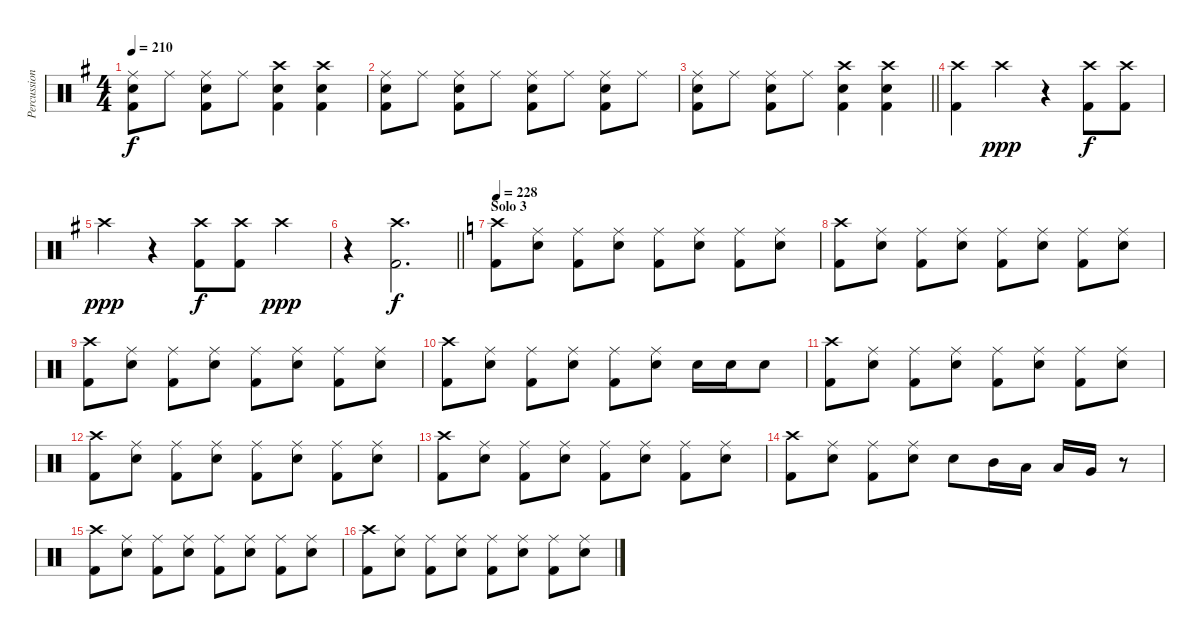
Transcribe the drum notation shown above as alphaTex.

\track ("Percussion" "Percussion") {instrument percussion}
\staff {score}
\articulation defaults
\ts (4 4)
\tempo 210
\clef neutral
\ks eminor
("Ride (middle)" "Snare (hit) 2" "Kick (hit) 2").8{dy f} "Ride (middle)".8 ("Ride (middle)" "Snare (hit) 2" "Kick (hit) 2").8 "Ride (middle)".8 ("Crash high (hit)" "Snare (hit) 2" "Kick (hit) 2").4 ("Crash high (hit)" "Snare (hit) 2" "Kick (hit) 2").4 |
("Ride (middle)" "Snare (hit) 2" "Kick (hit) 2").8 "Ride (middle)".8 ("Ride (middle)" "Snare (hit) 2" "Kick (hit) 2").8 "Ride (middle)".8 ("Ride (middle)" "Snare (hit) 2" "Kick (hit) 2").8 "Ride (middle)".8 ("Ride (middle)" "Snare (hit) 2" "Kick (hit) 2").8 "Ride (middle)".8 |
\barLineRight lightlight
("Ride (middle)" "Snare (hit) 2" "Kick (hit) 2").8 "Ride (middle)".8 ("Ride (middle)" "Snare (hit) 2" "Kick (hit) 2").8 "Ride (middle)".8 ("Crash high (hit)" "Snare (hit) 2" "Kick (hit) 2").4 ("Crash high (hit)" "Snare (hit) 2" "Kick (hit) 2").4 |
("Crash high (hit)" "Kick (hit) 2").4 "Crash high (hit)".4{dy ppp} r.4 ("Crash high (hit)" "Kick (hit) 2").8{dy f} ("Crash high (hit)" "Kick (hit) 2").8 |
"Crash high (hit)".4{dy ppp} r.4 ("Crash high (hit)" "Kick (hit) 2").8{dy f} ("Crash high (hit)" "Kick (hit) 2").8 "Crash high (hit)".4{dy ppp} |
\barLineRight lightlight
r.4 ("Crash high (hit)" "Kick (hit) 2").2{d dy f} |
\section ("" "Solo 3")
\tempo 228
\ks aminor
("Crash high (hit)" "Kick (hit) 2").8 ("Ride (middle)" "Snare (hit) 2").8 ("Ride (middle)" "Kick (hit) 2").8 ("Ride (middle)" "Snare (hit) 2").8 ("Ride (middle)" "Kick (hit) 2").8 ("Ride (middle)" "Snare (hit) 2").8 ("Ride (middle)" "Kick (hit) 2").8 ("Ride (middle)" "Snare (hit) 2").8 |
("Crash high (hit)" "Kick (hit) 2").8 ("Ride (middle)" "Snare (hit) 2").8 ("Ride (middle)" "Kick (hit) 2").8 ("Ride (middle)" "Snare (hit) 2").8 ("Ride (middle)" "Kick (hit) 2").8 ("Ride (middle)" "Snare (hit) 2").8 ("Ride (middle)" "Kick (hit) 2").8 ("Ride (middle)" "Snare (hit) 2").8 |
("Crash high (hit)" "Kick (hit) 2").8 ("Ride (middle)" "Snare (hit) 2").8 ("Ride (middle)" "Kick (hit) 2").8 ("Ride (middle)" "Snare (hit) 2").8 ("Ride (middle)" "Kick (hit) 2").8 ("Ride (middle)" "Snare (hit) 2").8 ("Ride (middle)" "Kick (hit) 2").8 ("Ride (middle)" "Snare (hit) 2").8 |
("Crash high (hit)" "Kick (hit) 2").8 ("Ride (middle)" "Snare (hit) 2").8 ("Ride (middle)" "Kick (hit) 2").8 ("Ride (middle)" "Snare (hit) 2").8 ("Ride (middle)" "Kick (hit) 2").8 ("Ride (middle)" "Snare (hit) 2").8 "Snare (hit) 2".16 "Snare (hit) 2".16 "Snare (hit) 2".8 |
("Crash high (hit)" "Kick (hit) 2").8 ("Ride (middle)" "Snare (hit) 2").8 ("Ride (middle)" "Kick (hit) 2").8 ("Ride (middle)" "Snare (hit) 2").8 ("Ride (middle)" "Kick (hit) 2").8 ("Ride (middle)" "Snare (hit) 2").8 ("Ride (middle)" "Kick (hit) 2").8 ("Ride (middle)" "Snare (hit) 2").8 |
("Crash high (hit)" "Kick (hit) 2").8 ("Ride (middle)" "Snare (hit) 2").8 ("Ride (middle)" "Kick (hit) 2").8 ("Ride (middle)" "Snare (hit) 2").8 ("Ride (middle)" "Kick (hit) 2").8 ("Ride (middle)" "Snare (hit) 2").8 ("Ride (middle)" "Kick (hit) 2").8 ("Ride (middle)" "Snare (hit) 2").8 |
("Crash high (hit)" "Kick (hit) 2").8 ("Ride (middle)" "Snare (hit) 2").8 ("Ride (middle)" "Kick (hit) 2").8 ("Ride (middle)" "Snare (hit) 2").8 ("Ride (middle)" "Kick (hit) 2").8 ("Ride (middle)" "Snare (hit) 2").8 ("Ride (middle)" "Kick (hit) 2").8 ("Ride (middle)" "Snare (hit) 2").8 |
("Crash high (hit)" "Kick (hit) 2").8 ("Ride (middle)" "Snare (hit) 2").8 ("Ride (middle)" "Kick (hit) 2").8 ("Ride (middle)" "Snare (hit) 2").8 "Snare (hit) 2".8 "Mid Tom (hit)".16 "Low Tom (hit)".16 "Low Tom (hit)".16 "Very Low Tom (hit)".16 r.8 |
("Crash high (hit)" "Kick (hit) 2").8 ("Ride (middle)" "Snare (hit) 2").8 ("Ride (middle)" "Kick (hit) 2").8 ("Ride (middle)" "Snare (hit) 2").8 ("Ride (middle)" "Kick (hit) 2").8 ("Ride (middle)" "Snare (hit) 2").8 ("Ride (middle)" "Kick (hit) 2").8 ("Ride (middle)" "Snare (hit) 2").8 |
("Crash high (hit)" "Kick (hit) 2").8 ("Ride (middle)" "Snare (hit) 2").8 ("Ride (middle)" "Kick (hit) 2").8 ("Ride (middle)" "Snare (hit) 2").8 ("Ride (middle)" "Kick (hit) 2").8 ("Ride (middle)" "Snare (hit) 2").8 ("Ride (middle)" "Kick (hit) 2").8 ("Ride (middle)" "Snare (hit) 2").8
